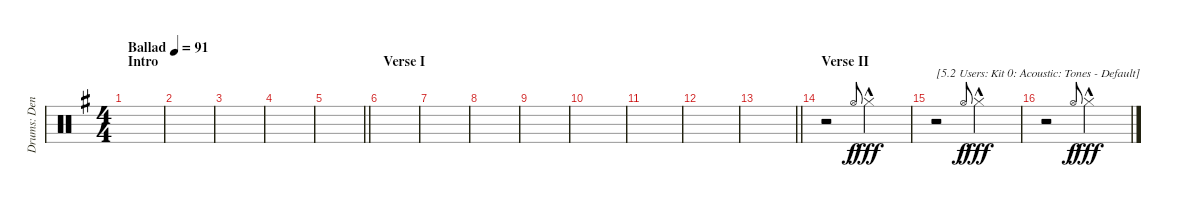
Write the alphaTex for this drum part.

\track ("Drums: Denny" "Drums: Den") {instrument percussion}
\staff {score}
\articulation defaults
\ts (4 4)
\section ("" "Intro")
\tempo (91 "Ballad")
\clef neutral
\ks g
|
|
|
|
\barLineRight lightlight
|
\section ("" "Verse I")
|
|
|
|
|
|
|
\barLineRight lightlight
|
\section ("" "Verse II")
r.2 "Hi-Hat (open)".8{gr onbeat} "Hi-Hat (closed)"{hac}.2{dy fff} |
r.2{txt "[5.2 Users: Kit 0: Acoustic: Tones - Default]"} "Hi-Hat (open)".8{gr onbeat dy f} "Hi-Hat (closed)"{hac}.2{dy fff} |
r.2 "Hi-Hat (open)".8{gr onbeat dy f} "Hi-Hat (closed)"{hac}.2{dy fff}
